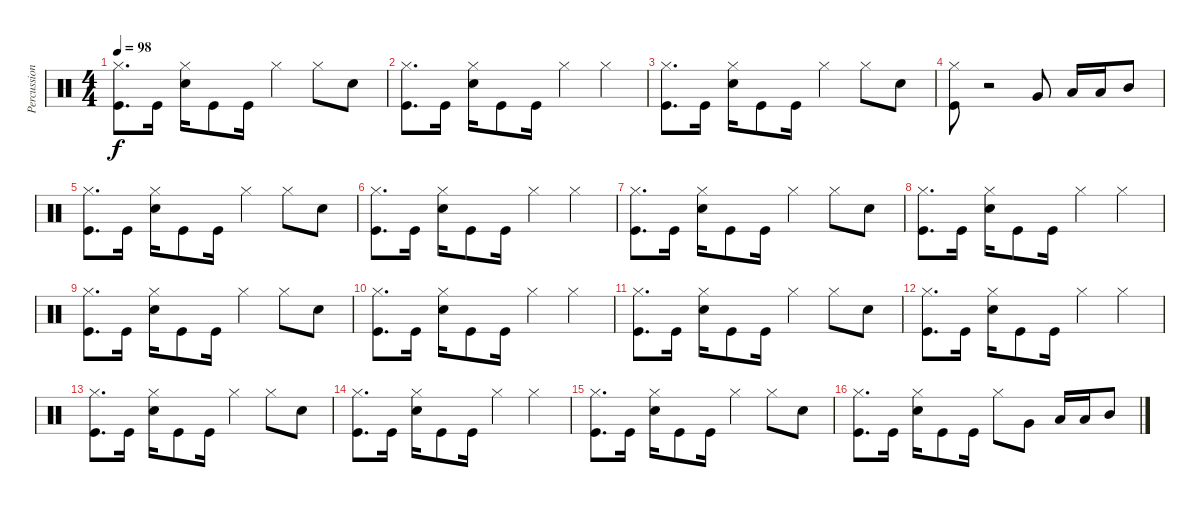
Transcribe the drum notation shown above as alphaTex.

\track ("Percussioni" "Percussion") {instrument percussion}
\staff {score}
\articulation defaults
\ts (4 4)
\tempo 98
\clef neutral
\ks c
("Kick (hit)" "Hi-Hat (closed)").8{d dy f} "Kick (hit)".16 ("Snare (hit) 2" "Hi-Hat (closed)").16 "Kick (hit)".8 "Kick (hit)".16 "Hi-Hat (closed)".4 "Hi-Hat (closed)".8 "Snare (hit) 2".8 |
("Kick (hit)" "Hi-Hat (closed)").8{d} "Kick (hit)".16 ("Snare (hit) 2" "Hi-Hat (closed)").16 "Kick (hit)".8 "Kick (hit)".16 "Hi-Hat (closed)".4 "Hi-Hat (closed)".4 |
("Kick (hit)" "Hi-Hat (closed)").8{d} "Kick (hit)".16 ("Snare (hit) 2" "Hi-Hat (closed)").16 "Kick (hit)".8 "Kick (hit)".16 "Hi-Hat (closed)".4 "Hi-Hat (closed)".8 "Snare (hit) 2".8 |
("Kick (hit)" "Hi-Hat (closed)").8 r.2 "Very Low Tom (hit)".8 "Low Tom (hit)".16 "Low Tom (hit)".16 "Mid Tom (hit)".8 |
("Kick (hit)" "Hi-Hat (closed)").8{d} "Kick (hit)".16 ("Snare (hit) 2" "Hi-Hat (closed)").16 "Kick (hit)".8 "Kick (hit)".16 "Hi-Hat (closed)".4 "Hi-Hat (closed)".8 "Snare (hit) 2".8 |
("Kick (hit)" "Hi-Hat (closed)").8{d} "Kick (hit)".16 ("Snare (hit) 2" "Hi-Hat (closed)").16 "Kick (hit)".8 "Kick (hit)".16 "Hi-Hat (closed)".4 "Hi-Hat (closed)".4 |
("Kick (hit)" "Hi-Hat (closed)").8{d} "Kick (hit)".16 ("Snare (hit) 2" "Hi-Hat (closed)").16 "Kick (hit)".8 "Kick (hit)".16 "Hi-Hat (closed)".4 "Hi-Hat (closed)".8 "Snare (hit) 2".8 |
("Kick (hit)" "Hi-Hat (closed)").8{d} "Kick (hit)".16 ("Snare (hit) 2" "Hi-Hat (closed)").16 "Kick (hit)".8 "Kick (hit)".16 "Hi-Hat (closed)".4 "Hi-Hat (closed)".4 |
("Kick (hit)" "Hi-Hat (closed)").8{d} "Kick (hit)".16 ("Snare (hit) 2" "Hi-Hat (closed)").16 "Kick (hit)".8 "Kick (hit)".16 "Hi-Hat (closed)".4 "Hi-Hat (closed)".8 "Snare (hit) 2".8 |
("Kick (hit)" "Hi-Hat (closed)").8{d} "Kick (hit)".16 ("Snare (hit) 2" "Hi-Hat (closed)").16 "Kick (hit)".8 "Kick (hit)".16 "Hi-Hat (closed)".4 "Hi-Hat (closed)".4 |
("Kick (hit)" "Hi-Hat (closed)").8{d} "Kick (hit)".16 ("Snare (hit) 2" "Hi-Hat (closed)").16 "Kick (hit)".8 "Kick (hit)".16 "Hi-Hat (closed)".4 "Hi-Hat (closed)".8 "Snare (hit) 2".8 |
("Kick (hit)" "Hi-Hat (closed)").8{d} "Kick (hit)".16 ("Snare (hit) 2" "Hi-Hat (closed)").16 "Kick (hit)".8 "Kick (hit)".16 "Hi-Hat (closed)".4 "Hi-Hat (closed)".4 |
("Kick (hit)" "Hi-Hat (closed)").8{d} "Kick (hit)".16 ("Snare (hit) 2" "Hi-Hat (closed)").16 "Kick (hit)".8 "Kick (hit)".16 "Hi-Hat (closed)".4 "Hi-Hat (closed)".8 "Snare (hit) 2".8 |
("Kick (hit)" "Hi-Hat (closed)").8{d} "Kick (hit)".16 ("Snare (hit) 2" "Hi-Hat (closed)").16 "Kick (hit)".8 "Kick (hit)".16 "Hi-Hat (closed)".4 "Hi-Hat (closed)".4 |
("Kick (hit)" "Hi-Hat (closed)").8{d} "Kick (hit)".16 ("Snare (hit) 2" "Hi-Hat (closed)").16 "Kick (hit)".8 "Kick (hit)".16 "Hi-Hat (closed)".4 "Hi-Hat (closed)".8 "Snare (hit) 2".8 |
("Kick (hit)" "Hi-Hat (closed)").8{d} "Kick (hit)".16 ("Snare (hit) 2" "Hi-Hat (closed)").16 "Kick (hit)".8 "Kick (hit)".16 "Hi-Hat (closed)".8 "Very Low Tom (hit)".8 "Low Tom (hit)".16 "Low Tom (hit)".16 "Mid Tom (hit)".8
